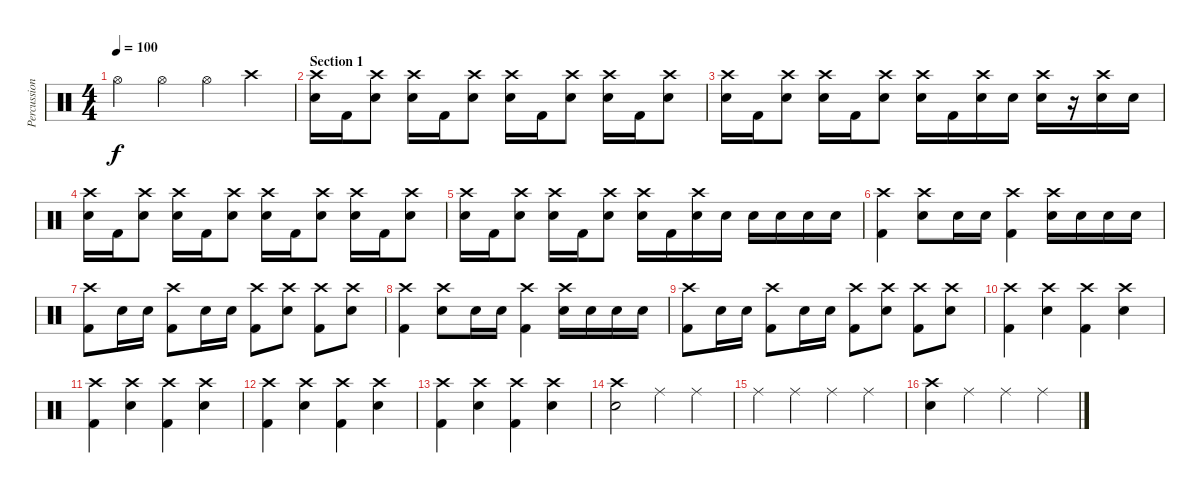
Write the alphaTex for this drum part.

\track ("Percussions" "Percussion") {instrument percussion}
\staff {score}
\articulation defaults
\ts (4 4)
\tempo 100
\clef neutral
\ks c "Hi-Hat (open)".4{dy f} "Hi-Hat (open)".4 "Hi-Hat (open)".4 "Crash high (hit)".4
|
\section ("" "Section 1")
("Crash high (hit)" "Snare (hit) 2").16 "Kick (hit) 2".16 ("Crash high (hit)" "Snare (hit) 2").8 ("Crash high (hit)" "Snare (hit) 2").16 "Kick (hit) 2".16 ("Crash high (hit)" "Snare (hit) 2").8 ("Crash high (hit)" "Snare (hit) 2").16 "Kick (hit) 2".16 ("Crash high (hit)" "Snare (hit) 2").8 ("Crash high (hit)" "Snare (hit) 2").16 "Kick (hit) 2".16 ("Crash high (hit)" "Snare (hit) 2").8 |
("Crash high (hit)" "Snare (hit) 2").16 "Kick (hit) 2".16 ("Crash high (hit)" "Snare (hit) 2").8 ("Crash high (hit)" "Snare (hit) 2").16 "Kick (hit) 2".16 ("Crash high (hit)" "Snare (hit) 2").8 ("Crash high (hit)" "Snare (hit) 2").16 "Kick (hit) 2".16 ("Crash high (hit)" "Snare (hit) 2").16 "Snare (hit) 2".16 ("Crash high (hit)" "Snare (hit) 2").16 r.16 ("Crash high (hit)" "Snare (hit) 2").16 "Snare (hit) 2".16 |
("Crash high (hit)" "Snare (hit) 2").16 "Kick (hit) 2".16 ("Crash high (hit)" "Snare (hit) 2").8 ("Crash high (hit)" "Snare (hit) 2").16 "Kick (hit) 2".16 ("Crash high (hit)" "Snare (hit) 2").8 ("Crash high (hit)" "Snare (hit) 2").16 "Kick (hit) 2".16 ("Crash high (hit)" "Snare (hit) 2").8 ("Crash high (hit)" "Snare (hit) 2").16 "Kick (hit) 2".16 ("Crash high (hit)" "Snare (hit) 2").8 |
("Crash high (hit)" "Snare (hit) 2").16 "Kick (hit) 2".16 ("Crash high (hit)" "Snare (hit) 2").8 ("Crash high (hit)" "Snare (hit) 2").16 "Kick (hit) 2".16 ("Crash high (hit)" "Snare (hit) 2").8 ("Crash high (hit)" "Snare (hit) 2").16 "Kick (hit) 2".16 ("Crash high (hit)" "Snare (hit) 2").16 "Snare (hit) 2".16 "Snare (hit) 2".16 "Snare (hit) 2".16 "Snare (hit) 2".16 "Snare (hit) 2".16 |
("Crash high (hit)" "Kick (hit) 2").4 ("Crash high (hit)" "Snare (hit) 2").8 "Snare (hit) 2".16 "Snare (hit) 2".16 ("Crash high (hit)" "Kick (hit) 2").4 ("Crash high (hit)" "Snare (hit) 2").16 "Snare (hit) 2".16 "Snare (hit) 2".16 "Snare (hit) 2".16 |
("Crash high (hit)" "Kick (hit) 2").8 "Snare (hit) 2".16 "Snare (hit) 2".16 ("Crash high (hit)" "Kick (hit) 2").8 "Snare (hit) 2".16 "Snare (hit) 2".16 ("Crash high (hit)" "Kick (hit) 2").8 ("Crash high (hit)" "Snare (hit) 2").8 ("Crash high (hit)" "Kick (hit) 2").8 ("Crash high (hit)" "Snare (hit) 2").8 |
("Crash high (hit)" "Kick (hit) 2").4 ("Crash high (hit)" "Snare (hit) 2").8 "Snare (hit) 2".16 "Snare (hit) 2".16 ("Crash high (hit)" "Kick (hit) 2").4 ("Crash high (hit)" "Snare (hit) 2").16 "Snare (hit) 2".16 "Snare (hit) 2".16 "Snare (hit) 2".16 |
("Crash high (hit)" "Kick (hit) 2").8 "Snare (hit) 2".16 "Snare (hit) 2".16 ("Crash high (hit)" "Kick (hit) 2").8 "Snare (hit) 2".16 "Snare (hit) 2".16 ("Crash high (hit)" "Kick (hit) 2").8 ("Crash high (hit)" "Snare (hit) 2").8 ("Crash high (hit)" "Kick (hit) 2").8 ("Crash high (hit)" "Snare (hit) 2").8 |
("Crash high (hit)" "Kick (hit) 2").4 ("Crash high (hit)" "Snare (hit) 2").4 ("Crash high (hit)" "Kick (hit) 2").4 ("Crash high (hit)" "Snare (hit) 2").4 |
("Crash high (hit)" "Kick (hit) 2").4 ("Crash high (hit)" "Snare (hit) 2").4 ("Crash high (hit)" "Kick (hit) 2").4 ("Crash high (hit)" "Snare (hit) 2").4 |
("Crash high (hit)" "Kick (hit) 2").4 ("Crash high (hit)" "Snare (hit) 2").4 ("Crash high (hit)" "Kick (hit) 2").4 ("Crash high (hit)" "Snare (hit) 2").4 |
("Crash high (hit)" "Kick (hit) 2").4 ("Crash high (hit)" "Snare (hit) 2").4 ("Crash high (hit)" "Kick (hit) 2").4 ("Crash high (hit)" "Snare (hit) 2").4 |
("Crash high (hit)" "Snare (hit) 2").2 "Ride (middle)".4 "Ride (middle)".4 |
"Ride (middle)".4 "Ride (middle)".4 "Ride (middle)".4 "Ride (middle)".4 |
("Crash high (hit)" "Snare (hit) 2").4 "Ride (middle)".4 "Ride (middle)".4 "Ride (middle)".4
